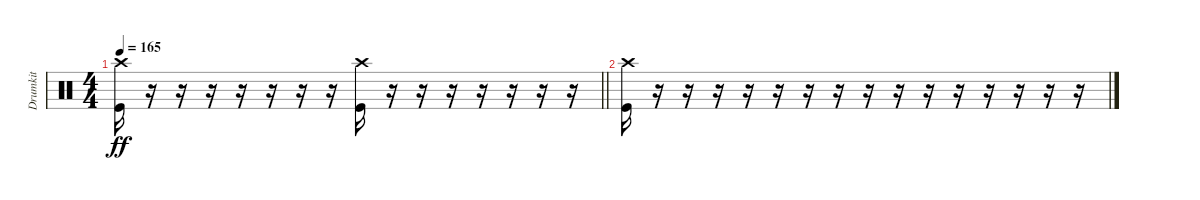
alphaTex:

\track ("Drumkit" "Drumkit") {instrument percussion}
\staff {score}
\articulation defaults
\ts (4 4)
\tempo 165
\clef neutral
\barLineRight lightlight
\ks c
("Crash high (hit)" "Kick (hit)").16{dy ff} r.16 r.16 r.16 r.16 r.16 r.16 r.16 ("Crash high (hit)" "Kick (hit)").16 r.16 r.16 r.16 r.16 r.16 r.16 r.16 |
("Crash high (hit)" "Kick (hit)").16 r.16 r.16 r.16 r.16 r.16 r.16 r.16 r.16 r.16 r.16 r.16 r.16 r.16 r.16 r.16
